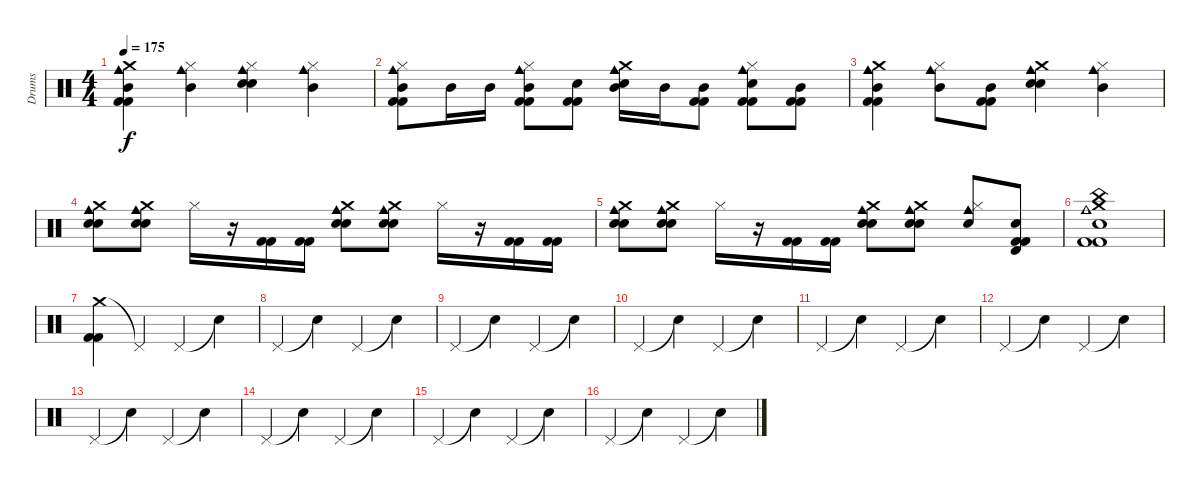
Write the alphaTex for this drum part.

\track ("Drums" "Drums") {instrument percussion}
\staff {score}
\articulation defaults
\ts (4 4)
\tempo 175
\clef neutral
\ks c
("Crash medium (hit)" "Mid Tom (hit)" "Cowbell medium (hit)" "Kick (hit) 2" "Kick (hit) 2").4{dy f} ("Hi-Hat (closed)" "Mid Tom (hit)" "Cowbell medium (hit)").4 ("Hi-Hat (closed)" "Electric Snare (hit)" "Snare (hit) 2" "Cowbell medium (hit)").4 ("Hi-Hat (closed)" "Mid Tom (hit)" "Cowbell medium (hit)").4 |
("Hi-Hat (closed)" "Mid Tom (hit)" "Cowbell medium (hit)" "Kick (hit) 2" "Kick (hit) 2").8 "Mid Tom (hit)".16 "Mid Tom (hit)".16 ("Hi-Hat (closed)" "Mid Tom (hit)" "Cowbell medium (hit)" "Kick (hit) 2" "Kick (hit) 2").8 ("Electric Snare (hit)" "Kick (hit) 2" "Kick (hit) 2").8 ("Crash medium (hit)" "Mid Tom (hit)" "Snare (hit) 2" "Cowbell medium (hit)").16 "Mid Tom (hit)".16 ("Mid Tom (hit)" "Kick (hit) 2" "Kick (hit) 2").8 ("Hi-Hat (closed)" "Electric Snare (hit)" "Cowbell medium (hit)" "Kick (hit) 2" "Kick (hit) 2").8 ("Mid Tom (hit)" "Kick (hit) 2" "Kick (hit) 2").8 |
("Crash medium (hit)" "Mid Tom (hit)" "Cowbell medium (hit)" "Kick (hit) 2" "Kick (hit) 2").4 ("Hi-Hat (closed)" "Mid Tom (hit)" "Cowbell medium (hit)").8 ("Mid Tom (hit)" "Kick (hit) 2" "Kick (hit) 2").8 ("Crash medium (hit)" "Electric Snare (hit)" "Snare (hit) 2" "Cowbell medium (hit)").4 ("Hi-Hat (closed)" "Mid Tom (hit)" "Cowbell medium (hit)").4 |
("Crash medium (hit)" "Electric Snare (hit)" "Snare (hit) 2" "Cowbell medium (hit)").8 ("Crash medium (hit)" "Electric Snare (hit)" "Snare (hit) 2" "Cowbell medium (hit)").8 "Hi-Hat (closed)".16 r.16 ("Kick (hit) 2" "Kick (hit) 2").16 ("Kick (hit) 2" "Kick (hit) 2").16 ("Crash medium (hit)" "Electric Snare (hit)" "Snare (hit) 2" "Cowbell medium (hit)").8 ("Crash medium (hit)" "Electric Snare (hit)" "Snare (hit) 2" "Cowbell medium (hit)").8 "Hi-Hat (closed)".16 r.16 ("Kick (hit) 2" "Kick (hit) 2").16 ("Kick (hit) 2" "Kick (hit) 2").16 |
("Crash medium (hit)" "Electric Snare (hit)" "Snare (hit) 2" "Cowbell medium (hit)").8 ("Crash medium (hit)" "Electric Snare (hit)" "Snare (hit) 2" "Cowbell medium (hit)").8 "Hi-Hat (closed)".16 r.16 ("Kick (hit) 2" "Kick (hit) 2").16 ("Kick (hit) 2" "Kick (hit) 2").16 ("Crash medium (hit)" "Electric Snare (hit)" "Snare (hit) 2" "Cowbell medium (hit)").8 ("Crash medium (hit)" "Electric Snare (hit)" "Snare (hit) 2" "Cowbell medium (hit)").8 ("Hi-Hat (closed)" "Electric Snare (hit)" "Cowbell medium (hit)").8 ("Electric Snare (hit)" "Timbale high (hit)" "Kick (hit) 2" "Kick (hit) 2").8 |
("China (hit)" "Crash medium (hit)" "Electric Snare (hit)" "Cowbell medium (hit)" "Kick (hit) 2" "Kick (hit) 2").1 |
("Crash medium (hit)" "Kick (hit) 2" "Kick (hit) 2").4 "Pedal Hi-Hat (hit)"{t}.4 "Pedal Hi-Hat (hit)".4 "Snare (hit)"{t}.4 |
"Pedal Hi-Hat (hit)".4 "Snare (hit)"{t}.4 "Pedal Hi-Hat (hit)".4 "Snare (hit)"{t}.4 |
"Pedal Hi-Hat (hit)".4 "Snare (hit)"{t}.4 "Pedal Hi-Hat (hit)".4 "Snare (hit)"{t}.4 |
"Pedal Hi-Hat (hit)".4 "Snare (hit)"{t}.4 "Pedal Hi-Hat (hit)".4 "Snare (hit)"{t}.4 |
"Pedal Hi-Hat (hit)".4 "Snare (hit)"{t}.4 "Pedal Hi-Hat (hit)".4 "Snare (hit)"{t}.4 |
"Pedal Hi-Hat (hit)".4 "Snare (hit)"{t}.4 "Pedal Hi-Hat (hit)".4 "Snare (hit)"{t}.4 |
"Pedal Hi-Hat (hit)".4 "Snare (hit)"{t}.4 "Pedal Hi-Hat (hit)".4 "Snare (hit)"{t}.4 |
"Pedal Hi-Hat (hit)".4 "Snare (hit)"{t}.4 "Pedal Hi-Hat (hit)".4 "Snare (hit)"{t}.4 |
"Pedal Hi-Hat (hit)".4 "Snare (hit)"{t}.4 "Pedal Hi-Hat (hit)".4 "Snare (hit)"{t}.4 |
"Pedal Hi-Hat (hit)".4 "Snare (hit)"{t}.4 "Pedal Hi-Hat (hit)".4 "Snare (hit)"{t}.4
